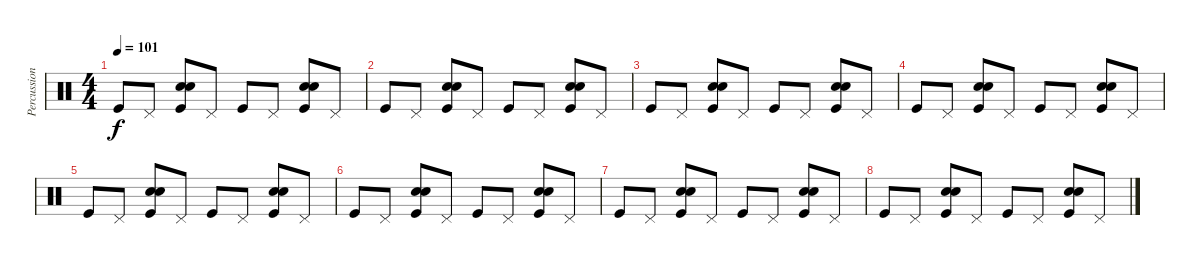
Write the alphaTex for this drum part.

\track ("Percussion" "Percussion") {instrument percussion}
\staff {score}
\articulation defaults
\ts (4 4)
\tempo 101
\clef neutral
\ks c "Kick (hit)".8{dy f} "Pedal Hi-Hat (hit)".8
("Kick (hit)" "Snare (hit) 2" "Electric Snare (hit)").8 "Pedal Hi-Hat (hit)".8 "Kick (hit)".8 "Pedal Hi-Hat (hit)".8 ("Kick (hit)" "Snare (hit) 2" "Electric Snare (hit)").8 "Pedal Hi-Hat (hit)".8 |
"Kick (hit)".8 "Pedal Hi-Hat (hit)".8 ("Kick (hit)" "Snare (hit) 2" "Electric Snare (hit)").8 "Pedal Hi-Hat (hit)".8 "Kick (hit)".8 "Pedal Hi-Hat (hit)".8 ("Kick (hit)" "Snare (hit) 2" "Electric Snare (hit)").8 "Pedal Hi-Hat (hit)".8 |
"Kick (hit)".8 "Pedal Hi-Hat (hit)".8 ("Kick (hit)" "Snare (hit) 2" "Electric Snare (hit)").8 "Pedal Hi-Hat (hit)".8 "Kick (hit)".8 "Pedal Hi-Hat (hit)".8 ("Kick (hit)" "Snare (hit) 2" "Electric Snare (hit)").8 "Pedal Hi-Hat (hit)".8 |
"Kick (hit)".8 "Pedal Hi-Hat (hit)".8 ("Kick (hit)" "Snare (hit) 2" "Electric Snare (hit)").8 "Pedal Hi-Hat (hit)".8 "Kick (hit)".8 "Pedal Hi-Hat (hit)".8 ("Kick (hit)" "Snare (hit) 2" "Electric Snare (hit)").8 "Pedal Hi-Hat (hit)".8 |
"Kick (hit)".8 "Pedal Hi-Hat (hit)".8 ("Kick (hit)" "Snare (hit) 2" "Electric Snare (hit)").8 "Pedal Hi-Hat (hit)".8 "Kick (hit)".8 "Pedal Hi-Hat (hit)".8 ("Kick (hit)" "Snare (hit) 2" "Electric Snare (hit)").8 "Pedal Hi-Hat (hit)".8 |
"Kick (hit)".8{volume 16} "Pedal Hi-Hat (hit)".8{volume 15} ("Kick (hit)" "Snare (hit) 2" "Electric Snare (hit)").8{volume 15} "Pedal Hi-Hat (hit)".8{volume 14} "Kick (hit)".8{volume 14} "Pedal Hi-Hat (hit)".8{volume 13} ("Kick (hit)" "Snare (hit) 2" "Electric Snare (hit)").8{volume 12} "Pedal Hi-Hat (hit)".8{volume 12} |
"Kick (hit)".8{volume 11} "Pedal Hi-Hat (hit)".8{volume 10} ("Kick (hit)" "Snare (hit) 2" "Electric Snare (hit)").8{volume 10} "Pedal Hi-Hat (hit)".8{volume 9} "Kick (hit)".8{volume 8} "Pedal Hi-Hat (hit)".8{volume 8} ("Kick (hit)" "Snare (hit) 2" "Electric Snare (hit)").8{volume 7} "Pedal Hi-Hat (hit)".8{volume 6} |
"Kick (hit)".8{volume 6} "Pedal Hi-Hat (hit)".8{volume 5} ("Kick (hit)" "Snare (hit) 2" "Electric Snare (hit)").8{volume 4} "Pedal Hi-Hat (hit)".8{volume 4} "Kick (hit)".8{volume 3} "Pedal Hi-Hat (hit)".8{volume 2} ("Kick (hit)" "Snare (hit) 2" "Electric Snare (hit)").8{volume 2} "Pedal Hi-Hat (hit)".8{volume 1}
